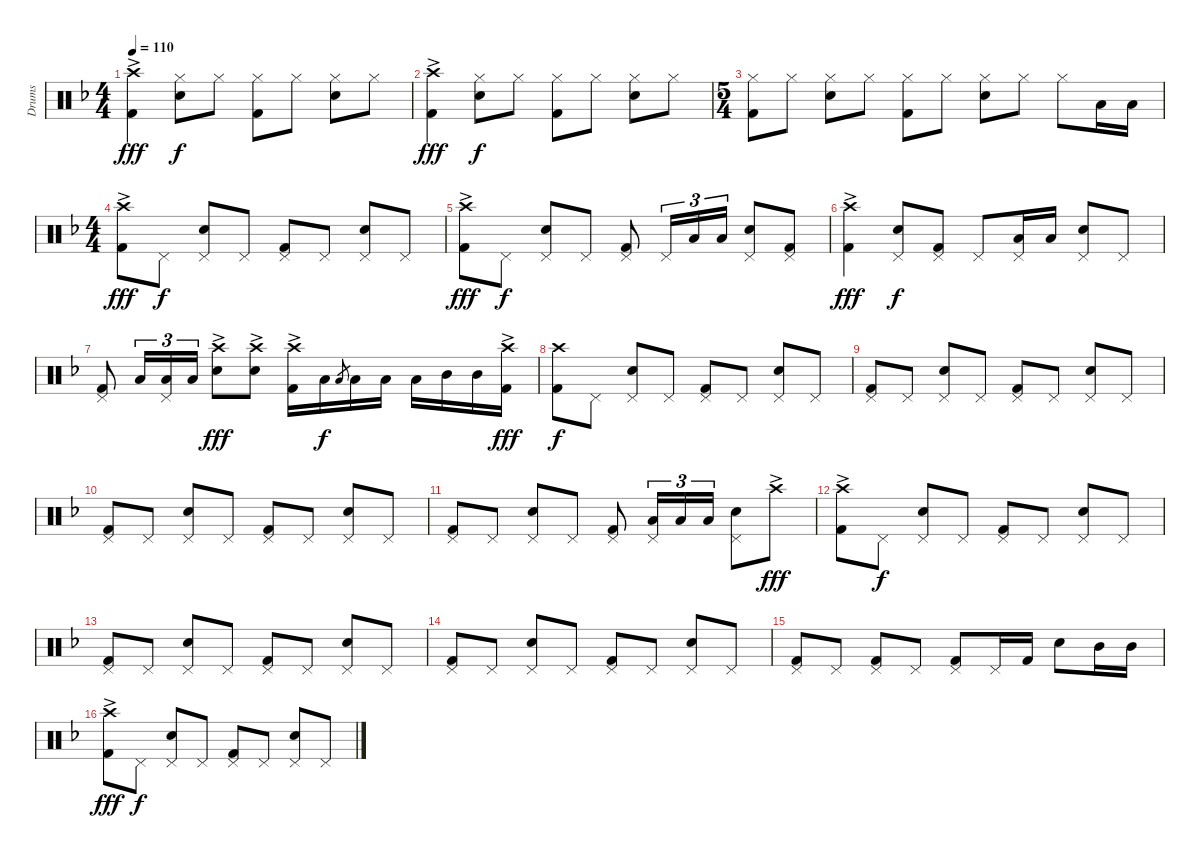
\track ("Drums" "Drums") {instrument percussion}
\staff {score}
\articulation defaults
\ts (4 4)
\tempo 110
\clef neutral
\ks f
("Kick (hit) 2" "Crash high (hit)"{ac}).4{dy fff} ("Snare (hit) 2" "Hi-Hat (closed)").8{dy f} "Hi-Hat (closed)".8 ("Kick (hit) 2" "Hi-Hat (closed)").8 "Hi-Hat (closed)".8 ("Snare (hit) 2" "Hi-Hat (closed)").8 "Hi-Hat (closed)".8 |
("Kick (hit) 2" "Crash high (hit)"{ac}).4{dy fff} ("Snare (hit) 2" "Hi-Hat (closed)").8{dy f} "Hi-Hat (closed)".8 ("Kick (hit) 2" "Hi-Hat (closed)").8 "Hi-Hat (closed)".8 ("Snare (hit) 2" "Hi-Hat (closed)").8 "Hi-Hat (closed)".8 |
\ts (5 4)
("Kick (hit) 2" "Hi-Hat (closed)").8 "Hi-Hat (closed)".8 ("Snare (hit) 2" "Hi-Hat (closed)").8 "Hi-Hat (closed)".8 ("Kick (hit) 2" "Hi-Hat (closed)").8 "Hi-Hat (closed)".8 ("Snare (hit) 2" "Hi-Hat (closed)").8 "Hi-Hat (closed)".8 "Hi-Hat (closed)".8 "Low Floor Tom (hit)".16 "Low Floor Tom (hit)".16 |
\ts (4 4)
("Kick (hit) 2" "Crash high (hit)"{ac}).8{dy fff} "Pedal Hi-Hat (hit)".8{dy f} ("Snare (hit) 2" "Pedal Hi-Hat (hit)").8 "Pedal Hi-Hat (hit)".8 ("Kick (hit) 2" "Pedal Hi-Hat (hit)").8 "Pedal Hi-Hat (hit)".8 ("Snare (hit) 2" "Pedal Hi-Hat (hit)").8 "Pedal Hi-Hat (hit)".8 |
("Kick (hit) 2" "Crash high (hit)"{ac}).8{dy fff} "Pedal Hi-Hat (hit)".8{dy f} ("Snare (hit) 2" "Pedal Hi-Hat (hit)").8 "Pedal Hi-Hat (hit)".8 ("Kick (hit) 2" "Pedal Hi-Hat (hit)").8 "Pedal Hi-Hat (hit)".16{tu (3 2)} "Low Floor Tom (hit)".16{tu (3 2)} "Low Floor Tom (hit)".16{tu (3 2)} ("Snare (hit) 2" "Pedal Hi-Hat (hit)").8 ("Kick (hit) 2" "Pedal Hi-Hat (hit)").8 |
("Kick (hit) 2" "Crash high (hit)"{ac}).4{dy fff} ("Snare (hit) 2" "Pedal Hi-Hat (hit)").8{dy f} ("Kick (hit) 2" "Pedal Hi-Hat (hit)").8 "Pedal Hi-Hat (hit)".8 ("Low Floor Tom (hit)" "Pedal Hi-Hat (hit)").16 "Low Floor Tom (hit)".16 ("Snare (hit) 2" "Pedal Hi-Hat (hit)").8 "Pedal Hi-Hat (hit)".8 |
("Kick (hit) 2" "Pedal Hi-Hat (hit)").8 "Low Floor Tom (hit)".16{tu (3 2)} ("Low Floor Tom (hit)" "Pedal Hi-Hat (hit)").16{tu (3 2)} "Low Floor Tom (hit)".16{tu (3 2)} ("Snare (hit) 2" "Crash high (hit)"{ac}).8{dy fff} ("Snare (hit) 2" "Crash high (hit)"{ac}).8 ("Kick (hit) 2" "Crash high (hit)"{ac}).16 "Low Tom (hit)".16{dy f} "Low Tom (hit)".8{gr} "Low Tom (hit)".16 "Low Tom (hit)".16 "Low Tom (hit)".16 "Mid Tom (hit)".16 "Mid Tom (hit)".16 ("Kick (hit) 2" "Crash high (hit)"{ac}).16{dy fff} |
("Kick (hit) 2" "Crash high (hit)").8{dy f} "Pedal Hi-Hat (hit)".8 ("Snare (hit) 2" "Pedal Hi-Hat (hit)").8 "Pedal Hi-Hat (hit)".8 ("Kick (hit) 2" "Pedal Hi-Hat (hit)").8 "Pedal Hi-Hat (hit)".8 ("Snare (hit) 2" "Pedal Hi-Hat (hit)").8 "Pedal Hi-Hat (hit)".8 |
("Kick (hit) 2" "Pedal Hi-Hat (hit)").8 "Pedal Hi-Hat (hit)".8 ("Snare (hit) 2" "Pedal Hi-Hat (hit)").8 "Pedal Hi-Hat (hit)".8 ("Kick (hit) 2" "Pedal Hi-Hat (hit)").8 "Pedal Hi-Hat (hit)".8 ("Snare (hit) 2" "Pedal Hi-Hat (hit)").8 "Pedal Hi-Hat (hit)".8 |
("Kick (hit) 2" "Pedal Hi-Hat (hit)").8 "Pedal Hi-Hat (hit)".8 ("Snare (hit) 2" "Pedal Hi-Hat (hit)").8 "Pedal Hi-Hat (hit)".8 ("Kick (hit) 2" "Pedal Hi-Hat (hit)").8 "Pedal Hi-Hat (hit)".8 ("Snare (hit) 2" "Pedal Hi-Hat (hit)").8 "Pedal Hi-Hat (hit)".8 |
("Kick (hit) 2" "Pedal Hi-Hat (hit)").8 "Pedal Hi-Hat (hit)".8 ("Snare (hit) 2" "Pedal Hi-Hat (hit)").8 "Pedal Hi-Hat (hit)".8 ("Kick (hit) 2" "Pedal Hi-Hat (hit)").8 ("Low Floor Tom (hit)" "Pedal Hi-Hat (hit)").16{tu (3 2)} "Low Floor Tom (hit)".16{tu (3 2)} "Low Floor Tom (hit)".16{tu (3 2)} ("Snare (hit) 2" "Pedal Hi-Hat (hit)").8 "Crash high (hit)"{ac}.8{dy fff} |
("Kick (hit) 2" "Crash high (hit)"{ac}).8 "Pedal Hi-Hat (hit)".8{dy f} ("Snare (hit) 2" "Pedal Hi-Hat (hit)").8 "Pedal Hi-Hat (hit)".8 ("Kick (hit) 2" "Pedal Hi-Hat (hit)").8 "Pedal Hi-Hat (hit)".8 ("Snare (hit) 2" "Pedal Hi-Hat (hit)").8 "Pedal Hi-Hat (hit)".8 |
("Kick (hit) 2" "Pedal Hi-Hat (hit)").8 "Pedal Hi-Hat (hit)".8 ("Snare (hit) 2" "Pedal Hi-Hat (hit)").8 "Pedal Hi-Hat (hit)".8 ("Kick (hit) 2" "Pedal Hi-Hat (hit)").8 "Pedal Hi-Hat (hit)".8 ("Snare (hit) 2" "Pedal Hi-Hat (hit)").8 "Pedal Hi-Hat (hit)".8 |
("Kick (hit) 2" "Pedal Hi-Hat (hit)").8 "Pedal Hi-Hat (hit)".8 ("Snare (hit) 2" "Pedal Hi-Hat (hit)").8 "Pedal Hi-Hat (hit)".8 ("Kick (hit) 2" "Pedal Hi-Hat (hit)").8 "Pedal Hi-Hat (hit)".8 ("Snare (hit) 2" "Pedal Hi-Hat (hit)").8 "Pedal Hi-Hat (hit)".8 |
("Kick (hit) 2" "Pedal Hi-Hat (hit)").8 "Pedal Hi-Hat (hit)".8 ("Kick (hit) 2" "Pedal Hi-Hat (hit)").8 "Pedal Hi-Hat (hit)".8 ("Kick (hit) 2" "Pedal Hi-Hat (hit)").8 "Pedal Hi-Hat (hit)".16 "Kick (hit) 2".16 "Snare (hit) 2".8 "Mid Tom (hit)".16 "Mid Tom (hit)".16 |
("Kick (hit) 2" "Crash high (hit)"{ac}).8{dy fff} "Pedal Hi-Hat (hit)".8{dy f} ("Snare (hit) 2" "Pedal Hi-Hat (hit)").8 "Pedal Hi-Hat (hit)".8 ("Kick (hit) 2" "Pedal Hi-Hat (hit)").8 "Pedal Hi-Hat (hit)".8 ("Snare (hit) 2" "Pedal Hi-Hat (hit)").8 "Pedal Hi-Hat (hit)".8
